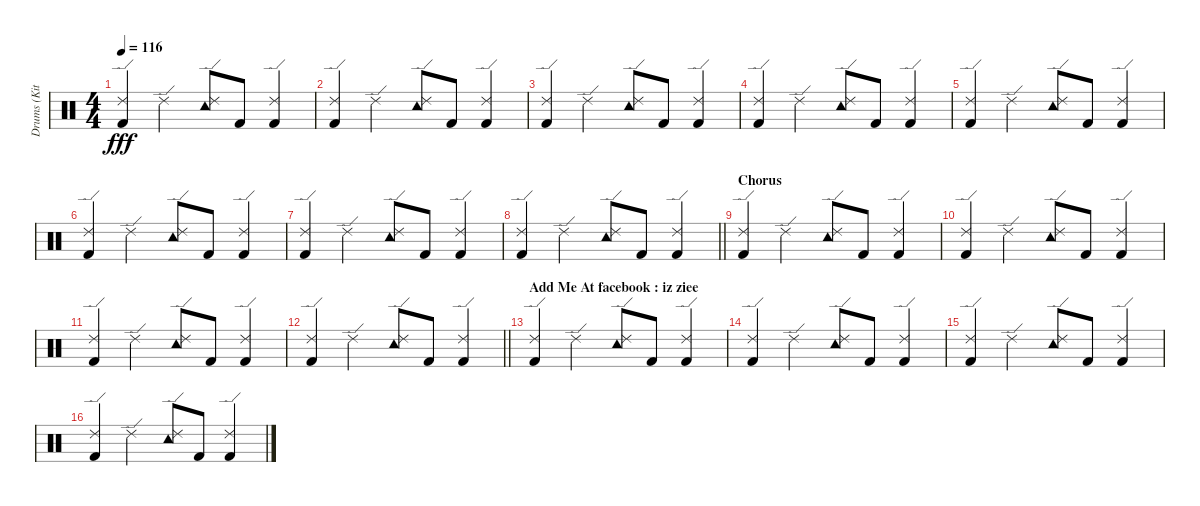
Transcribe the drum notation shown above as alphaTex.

\track ("Drums (Kit)" "Drums (Kit") {instrument percussion}
\staff {score}
\articulation defaults
\ts (4 4)
\tempo 116
\clef neutral
\ks c
("Kick (hit) 2" "Ride (edge) 2").4{dy fff} "Ride (edge) 2".4 ("Ride (edge) 2" "Tambourine (hit)").8 "Kick (hit) 2".8 ("Ride (edge) 2" "Kick (hit) 2").4 |
("Ride (edge) 2" "Kick (hit) 2").4 "Ride (edge) 2".4 ("Ride (edge) 2" "Tambourine (hit)").8 "Kick (hit) 2".8 ("Ride (edge) 2" "Kick (hit) 2").4 |
("Kick (hit) 2" "Ride (edge) 2").4 "Ride (edge) 2".4 ("Ride (edge) 2" "Tambourine (hit)").8 "Kick (hit) 2".8 ("Ride (edge) 2" "Kick (hit) 2").4 |
("Ride (edge) 2" "Kick (hit) 2").4 "Ride (edge) 2".4 ("Ride (edge) 2" "Tambourine (hit)").8 "Kick (hit) 2".8 ("Ride (edge) 2" "Kick (hit) 2").4 |
("Kick (hit) 2" "Ride (edge) 2").4 "Ride (edge) 2".4 ("Ride (edge) 2" "Tambourine (hit)").8 "Kick (hit) 2".8 ("Ride (edge) 2" "Kick (hit) 2").4 |
("Ride (edge) 2" "Kick (hit) 2").4 "Ride (edge) 2".4 ("Ride (edge) 2" "Tambourine (hit)").8 "Kick (hit) 2".8 ("Ride (edge) 2" "Kick (hit) 2").4 |
("Kick (hit) 2" "Ride (edge) 2").4 "Ride (edge) 2".4 ("Ride (edge) 2" "Tambourine (hit)").8 "Kick (hit) 2".8 ("Ride (edge) 2" "Kick (hit) 2").4 |
\barLineRight lightlight
("Ride (edge) 2" "Kick (hit) 2").4 "Ride (edge) 2".4 ("Ride (edge) 2" "Tambourine (hit)").8 "Kick (hit) 2".8 ("Ride (edge) 2" "Kick (hit) 2").4 |
\section ("" "Chorus")
("Kick (hit) 2" "Ride (edge) 2").4 "Ride (edge) 2".4 ("Ride (edge) 2" "Tambourine (hit)").8 "Kick (hit) 2".8 ("Ride (edge) 2" "Kick (hit) 2").4 |
("Ride (edge) 2" "Kick (hit) 2").4 "Ride (edge) 2".4 ("Ride (edge) 2" "Tambourine (hit)").8 "Kick (hit) 2".8 ("Ride (edge) 2" "Kick (hit) 2").4 |
("Kick (hit) 2" "Ride (edge) 2").4 "Ride (edge) 2".4 ("Ride (edge) 2" "Tambourine (hit)").8 "Kick (hit) 2".8 ("Ride (edge) 2" "Kick (hit) 2").4 |
\barLineRight lightlight
("Ride (edge) 2" "Kick (hit) 2").4 "Ride (edge) 2".4 ("Ride (edge) 2" "Tambourine (hit)").8 "Kick (hit) 2".8 ("Ride (edge) 2" "Kick (hit) 2").4 |
\section ("" "Add Me At facebook : iz ziee")
("Kick (hit) 2" "Ride (edge) 2").4 "Ride (edge) 2".4 ("Ride (edge) 2" "Tambourine (hit)").8 "Kick (hit) 2".8 ("Ride (edge) 2" "Kick (hit) 2").4 |
("Ride (edge) 2" "Kick (hit) 2").4 "Ride (edge) 2".4 ("Ride (edge) 2" "Tambourine (hit)").8 "Kick (hit) 2".8 ("Ride (edge) 2" "Kick (hit) 2").4 |
("Kick (hit) 2" "Ride (edge) 2").4 "Ride (edge) 2".4 ("Ride (edge) 2" "Tambourine (hit)").8 "Kick (hit) 2".8 ("Ride (edge) 2" "Kick (hit) 2").4 |
("Ride (edge) 2" "Kick (hit) 2").4 "Ride (edge) 2".4 ("Ride (edge) 2" "Tambourine (hit)").8 "Kick (hit) 2".8 ("Ride (edge) 2" "Kick (hit) 2").4
